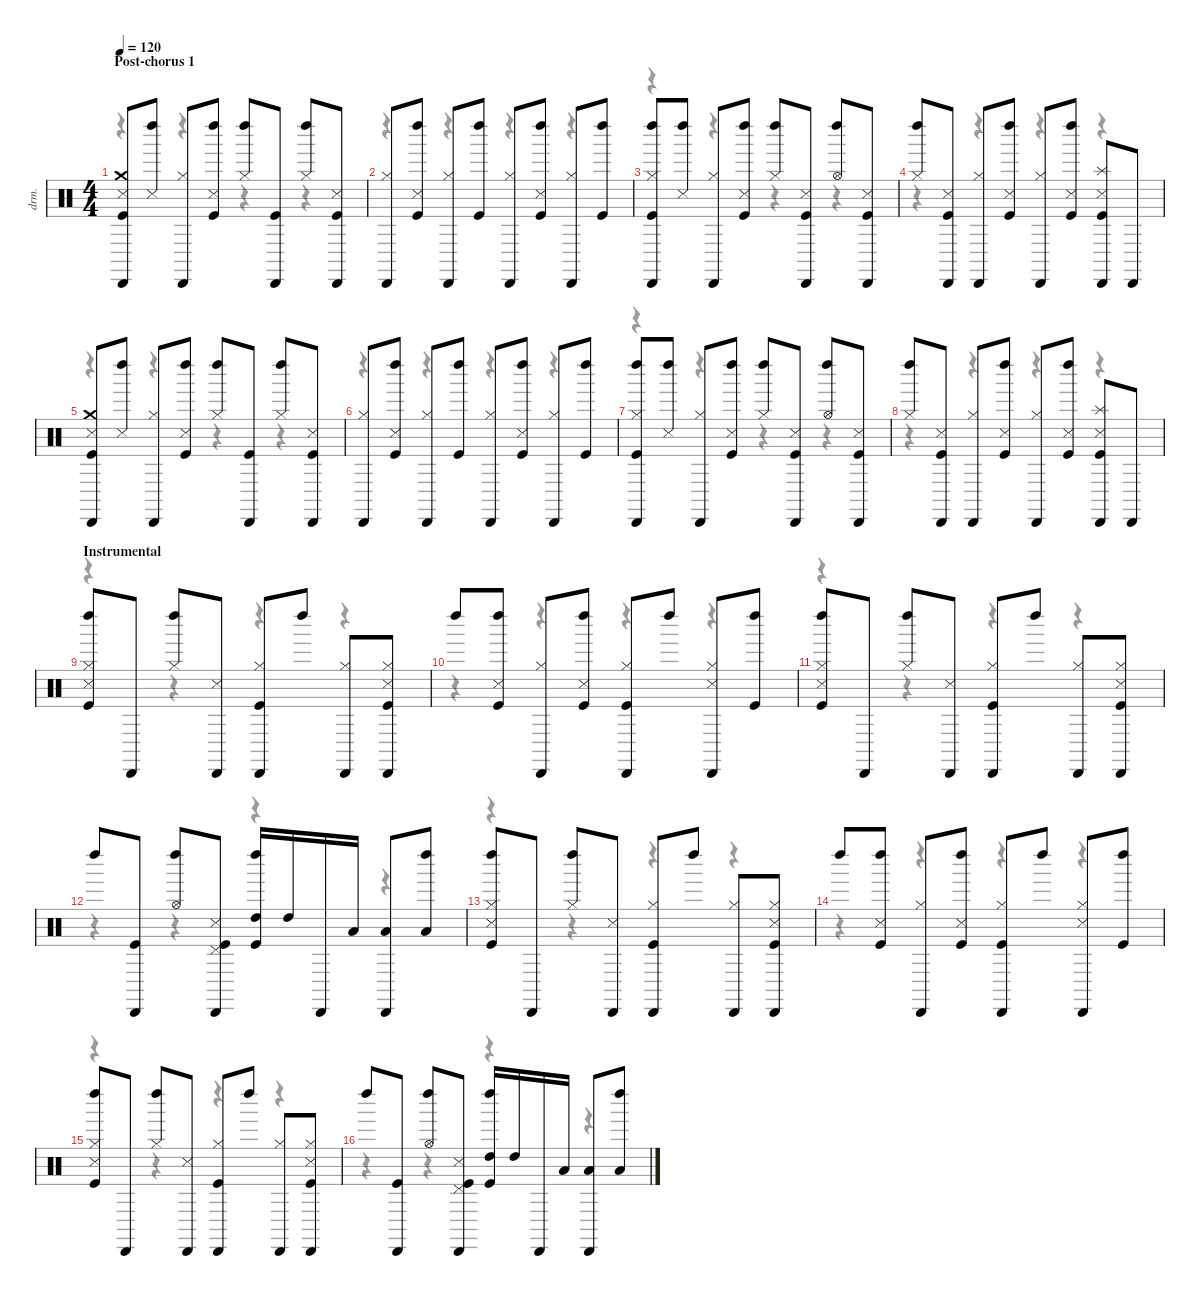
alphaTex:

\defaultSystemsLayout 4
\hideDynamics
\bracketExtendMode nobrackets
\track ("Drums" "drm.") {instrument percussion}
\staff {score}
\articulation defaults
\voice
\ts (4 4)
\section ("" "Post-chorus 1")
\tempo 120
\clef neutral
\ks c
("Cabasa (hit)" "Snare (side stick) 3" "Kick (hit)" "Crash medium (hit)").8{dy ff} ("Left Maraca (hit)" "Snare (side stick) 3").8 ("Cabasa (hit)" "Hi-Hat (closed)").8 ("Left Maraca (hit)" "Snare (side stick) 3" "Kick (hit)").8 ("Left Maraca (hit)" "Hi-Hat (closed)").8{dy fff} ("Cabasa (hit)" "Kick (hit)").8{dy ff} ("Hi-Hat (closed)" "Left Maraca (hit)").8{dy fff} ("Cabasa (hit)" "Kick (hit)" "Snare (side stick) 3").8{dy ff} |
("Hi-Hat (closed)" "Cabasa (hit)").8 ("Left Maraca (hit)" "Snare (side stick) 3" "Kick (hit)").8{dy f} ("Hi-Hat (closed)" "Cabasa (hit)").8{dy ff} ("Kick (hit)" "Left Maraca (hit)").8{dy f} ("Hi-Hat (closed)" "Cabasa (hit)").8{dy ff} ("Left Maraca (hit)" "Snare (side stick) 3" "Kick (hit)").8{dy f} ("Hi-Hat (closed)" "Cabasa (hit)").8{dy ff} ("Left Maraca (hit)" "Kick (hit)").8 |
("Hi-Hat (closed)" "Cabasa (hit)" "Left Maraca (hit)" "Kick (hit)").8 ("Left Maraca (hit)" "Snare (side stick) 3").8{dy f} ("Hi-Hat (closed)" "Cabasa (hit)").8{dy ff} ("Left Maraca (hit)" "Snare (side stick) 3" "Kick (hit)").8 ("Hi-Hat (closed)" "Left Maraca (hit)").8 ("Cabasa (hit)" "Snare (side stick) 3" "Kick (hit)").8{dy f} ("Hi-Hat (open)" "Left Maraca (hit)").8{dy ff} ("Cabasa (hit)" "Snare (side stick) 3" "Kick (hit)").8 |
("Hi-Hat (closed)" "Left Maraca (hit)").8 ("Cabasa (hit)" "Kick (hit)" "Snare (side stick) 3").8{dy f} ("Cabasa (hit)" "Hi-Hat (closed)").8 ("Kick (hit)" "Left Maraca (hit)" "Snare (side stick) 3").8 ("Cabasa (hit)" "Hi-Hat (closed)").8{dy ff} ("Left Maraca (hit)" "Snare (side stick) 3" "Kick (hit)").8 ("Cabasa (hit)" "Splash (hit)" "Snare (side stick) 3" "Kick (hit)").8 "Cabasa (hit)".8{dy f} |
("Cabasa (hit)" "Snare (side stick) 3" "Kick (hit)" "Crash medium (hit)").8{dy ff} ("Left Maraca (hit)" "Snare (side stick) 3").8 ("Cabasa (hit)" "Hi-Hat (closed)").8 ("Left Maraca (hit)" "Snare (side stick) 3" "Kick (hit)").8 ("Left Maraca (hit)" "Hi-Hat (closed)").8{dy fff} ("Cabasa (hit)" "Kick (hit)").8{dy ff} ("Hi-Hat (closed)" "Left Maraca (hit)").8{dy fff} ("Cabasa (hit)" "Kick (hit)" "Snare (side stick) 3").8{dy ff} |
("Hi-Hat (closed)" "Cabasa (hit)").8 ("Left Maraca (hit)" "Snare (side stick) 3" "Kick (hit)").8{dy f} ("Hi-Hat (closed)" "Cabasa (hit)").8{dy ff} ("Kick (hit)" "Left Maraca (hit)").8{dy f} ("Hi-Hat (closed)" "Cabasa (hit)").8{dy ff} ("Left Maraca (hit)" "Snare (side stick) 3" "Kick (hit)").8{dy f} ("Hi-Hat (closed)" "Cabasa (hit)").8{dy ff} ("Left Maraca (hit)" "Kick (hit)").8 |
("Hi-Hat (closed)" "Cabasa (hit)" "Left Maraca (hit)" "Kick (hit)").8 ("Left Maraca (hit)" "Snare (side stick) 3").8{dy f} ("Hi-Hat (closed)" "Cabasa (hit)").8{dy ff} ("Left Maraca (hit)" "Snare (side stick) 3" "Kick (hit)").8 ("Hi-Hat (closed)" "Left Maraca (hit)").8 ("Cabasa (hit)" "Snare (side stick) 3" "Kick (hit)").8{dy f} ("Hi-Hat (open)" "Left Maraca (hit)").8{dy ff} ("Cabasa (hit)" "Snare (side stick) 3" "Kick (hit)").8 |
("Hi-Hat (closed)" "Left Maraca (hit)").8 ("Cabasa (hit)" "Kick (hit)" "Snare (side stick) 3").8{dy f} ("Cabasa (hit)" "Hi-Hat (closed)").8 ("Kick (hit)" "Left Maraca (hit)" "Snare (side stick) 3").8 ("Cabasa (hit)" "Hi-Hat (closed)").8{dy ff} ("Left Maraca (hit)" "Snare (side stick) 3" "Kick (hit)").8 ("Cabasa (hit)" "Splash (hit)" "Snare (side stick) 3" "Kick (hit)").8 "Cabasa (hit)".8{dy f} |
\section ("" "Instrumental")
("Hi-Hat (closed)" "Snare (side stick) 3" "Kick (hit)" "Left Maraca (hit)").8{dy ff} "Cabasa (hit)".8 ("Hi-Hat (closed)" "Left Maraca (hit)").8 ("Snare (side stick) 3" "Cabasa (hit)").8 ("Cabasa (hit)" "Kick (hit)" "Hi-Hat (closed)").8 "Left Maraca (hit)".8 ("Cabasa (hit)" "Hi-Hat (closed)").8 ("Hi-Hat (closed)" "Cabasa (hit)" "Kick (hit)" "Snare (side stick) 3").8 |
"Left Maraca (hit)".8 ("Left Maraca (hit)" "Snare (side stick) 3" "Kick (hit)").8{dy f} ("Hi-Hat (closed)" "Cabasa (hit)").8{dy ff} ("Left Maraca (hit)" "Kick (hit)" "Snare (side stick) 3").8 ("Cabasa (hit)" "Kick (hit)" "Hi-Hat (closed)").8 "Left Maraca (hit)".8 ("Cabasa (hit)" "Snare (side stick) 3" "Hi-Hat (closed)").8 ("Left Maraca (hit)" "Kick (hit)").8{dy fff} |
("Hi-Hat (closed)" "Snare (side stick) 3" "Kick (hit)" "Left Maraca (hit)").8{dy ff} "Cabasa (hit)".8 ("Hi-Hat (closed)" "Left Maraca (hit)").8 ("Snare (side stick) 3" "Cabasa (hit)").8 ("Cabasa (hit)" "Kick (hit)" "Hi-Hat (closed)").8 "Left Maraca (hit)".8 ("Cabasa (hit)" "Hi-Hat (closed)").8 ("Hi-Hat (closed)" "Cabasa (hit)" "Kick (hit)" "Snare (side stick) 3").8 |
"Left Maraca (hit)".8 ("Cabasa (hit)" "Kick (hit)").8 ("Left Maraca (hit)" "Hi-Hat (open)").8 ("Snare (side stick) 3" "Kick (hit)" "Cabasa (hit)" "Pedal Hi-Hat (hit)").8 ("High Tom (hit)" "Left Maraca (hit)" "Kick (hit)").16{dy f} "High Tom (hit)".16 "Cabasa (hit)".16{dy ff} "Low Tom (hit)".16 ("Cabasa (hit)" "Low Tom (hit)").8 ("Low Floor Tom (hit)" "Left Maraca (hit)").8 |
("Hi-Hat (closed)" "Snare (side stick) 3" "Kick (hit)" "Left Maraca (hit)").8 "Cabasa (hit)".8 ("Hi-Hat (closed)" "Left Maraca (hit)").8 ("Snare (side stick) 3" "Cabasa (hit)").8 ("Cabasa (hit)" "Kick (hit)" "Hi-Hat (closed)").8 "Left Maraca (hit)".8 ("Cabasa (hit)" "Hi-Hat (closed)").8 ("Hi-Hat (closed)" "Cabasa (hit)" "Kick (hit)" "Snare (side stick) 3").8 |
"Left Maraca (hit)".8 ("Left Maraca (hit)" "Snare (side stick) 3" "Kick (hit)").8{dy f} ("Hi-Hat (closed)" "Cabasa (hit)").8{dy ff} ("Left Maraca (hit)" "Kick (hit)" "Snare (side stick) 3").8 ("Cabasa (hit)" "Kick (hit)" "Hi-Hat (closed)").8 "Left Maraca (hit)".8 ("Cabasa (hit)" "Snare (side stick) 3" "Hi-Hat (closed)").8 ("Left Maraca (hit)" "Kick (hit)").8{dy fff} |
("Hi-Hat (closed)" "Snare (side stick) 3" "Kick (hit)" "Left Maraca (hit)").8{dy ff} "Cabasa (hit)".8 ("Hi-Hat (closed)" "Left Maraca (hit)").8 ("Snare (side stick) 3" "Cabasa (hit)").8 ("Cabasa (hit)" "Kick (hit)" "Hi-Hat (closed)").8 "Left Maraca (hit)".8 ("Cabasa (hit)" "Hi-Hat (closed)").8 ("Hi-Hat (closed)" "Cabasa (hit)" "Kick (hit)" "Snare (side stick) 3").8 |
"Left Maraca (hit)".8 ("Cabasa (hit)" "Kick (hit)").8 ("Left Maraca (hit)" "Hi-Hat (open)").8 ("Snare (side stick) 3" "Kick (hit)" "Cabasa (hit)" "Pedal Hi-Hat (hit)").8 ("High Tom (hit)" "Left Maraca (hit)" "Kick (hit)").16{dy f} "High Tom (hit)".16 "Cabasa (hit)".16{dy ff} "Low Tom (hit)".16 ("Cabasa (hit)" "Low Tom (hit)").8 ("Low Floor Tom (hit)" "Left Maraca (hit)").8
\voice
\clef neutral
\ottava regular
\simile none
\ks c
r.4{dy mf} r.4 r.4 r.4 |
r.4 r.4 r.4 r.4 |
r.4 r.4 r.4 r.4 |
r.4 r.4 r.4 r.4 |
r.4 r.4 r.4 r.4 |
r.4 r.4 r.4 r.4 |
r.4 r.4 r.4 r.4 |
r.4 r.4 r.4 r.4 |
r.4 r.4 r.4 r.4 |
r.4 r.4 r.4 r.4 |
r.4 r.4 r.4 r.4 |
r.4 r.4 r.4 r.4 |
r.4 r.4 r.4 r.4 |
r.4 r.4 r.4 r.4 |
r.4 r.4 r.4 r.4 |
r.4 r.4 r.4 r.4
